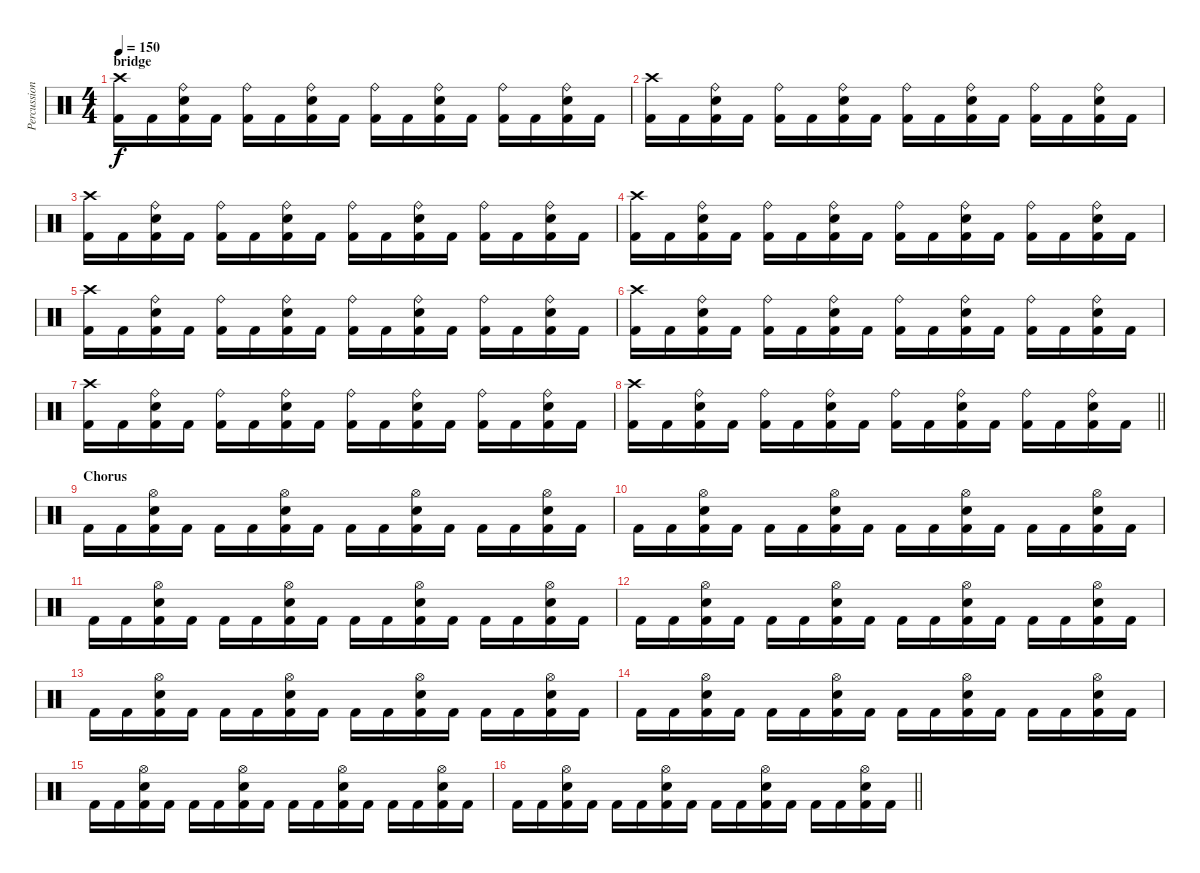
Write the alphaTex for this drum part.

\track ("Percussion" "Percussion") {instrument percussion}
\staff {score}
\articulation defaults
\ts (4 4)
\section ("" "bridge")
\tempo 150
\clef neutral
\ks c
("Crash high (hit)" "Kick (hit) 2").16{dy f} "Kick (hit) 2".16 ("Ride (bell)" "Snare (hit) 2" "Kick (hit) 2").16 "Kick (hit) 2".16 ("Ride (bell)" "Kick (hit) 2").16 "Kick (hit) 2".16 ("Ride (bell)" "Snare (hit) 2" "Kick (hit) 2").16 "Kick (hit) 2".16 ("Ride (bell)" "Kick (hit) 2").16 "Kick (hit) 2".16 ("Ride (bell)" "Snare (hit) 2" "Kick (hit) 2").16 "Kick (hit) 2".16 ("Ride (bell)" "Kick (hit) 2").16 "Kick (hit) 2".16 ("Ride (bell)" "Snare (hit) 2" "Kick (hit) 2").16 "Kick (hit) 2".16 |
("Crash high (hit)" "Kick (hit) 2").16 "Kick (hit) 2".16 ("Ride (bell)" "Snare (hit) 2" "Kick (hit) 2").16 "Kick (hit) 2".16 ("Ride (bell)" "Kick (hit) 2").16 "Kick (hit) 2".16 ("Ride (bell)" "Snare (hit) 2" "Kick (hit) 2").16 "Kick (hit) 2".16 ("Ride (bell)" "Kick (hit) 2").16 "Kick (hit) 2".16 ("Ride (bell)" "Snare (hit) 2" "Kick (hit) 2").16 "Kick (hit) 2".16 ("Ride (bell)" "Kick (hit) 2").16 "Kick (hit) 2".16 ("Ride (bell)" "Snare (hit) 2" "Kick (hit) 2").16 "Kick (hit) 2".16 |
("Crash high (hit)" "Kick (hit) 2").16 "Kick (hit) 2".16 ("Ride (bell)" "Snare (hit) 2" "Kick (hit) 2").16 "Kick (hit) 2".16 ("Ride (bell)" "Kick (hit) 2").16 "Kick (hit) 2".16 ("Ride (bell)" "Snare (hit) 2" "Kick (hit) 2").16 "Kick (hit) 2".16 ("Ride (bell)" "Kick (hit) 2").16 "Kick (hit) 2".16 ("Ride (bell)" "Snare (hit) 2" "Kick (hit) 2").16 "Kick (hit) 2".16 ("Ride (bell)" "Kick (hit) 2").16 "Kick (hit) 2".16 ("Ride (bell)" "Snare (hit) 2" "Kick (hit) 2").16 "Kick (hit) 2".16 |
("Crash high (hit)" "Kick (hit) 2").16 "Kick (hit) 2".16 ("Ride (bell)" "Snare (hit) 2" "Kick (hit) 2").16 "Kick (hit) 2".16 ("Ride (bell)" "Kick (hit) 2").16 "Kick (hit) 2".16 ("Ride (bell)" "Snare (hit) 2" "Kick (hit) 2").16 "Kick (hit) 2".16 ("Ride (bell)" "Kick (hit) 2").16 "Kick (hit) 2".16 ("Ride (bell)" "Snare (hit) 2" "Kick (hit) 2").16 "Kick (hit) 2".16 ("Ride (bell)" "Kick (hit) 2").16 "Kick (hit) 2".16 ("Ride (bell)" "Snare (hit) 2" "Kick (hit) 2").16 "Kick (hit) 2".16 |
("Crash high (hit)" "Kick (hit) 2").16 "Kick (hit) 2".16 ("Ride (bell)" "Snare (hit) 2" "Kick (hit) 2").16 "Kick (hit) 2".16 ("Ride (bell)" "Kick (hit) 2").16 "Kick (hit) 2".16 ("Ride (bell)" "Snare (hit) 2" "Kick (hit) 2").16 "Kick (hit) 2".16 ("Ride (bell)" "Kick (hit) 2").16 "Kick (hit) 2".16 ("Ride (bell)" "Snare (hit) 2" "Kick (hit) 2").16 "Kick (hit) 2".16 ("Ride (bell)" "Kick (hit) 2").16 "Kick (hit) 2".16 ("Ride (bell)" "Snare (hit) 2" "Kick (hit) 2").16 "Kick (hit) 2".16 |
("Crash high (hit)" "Kick (hit) 2").16 "Kick (hit) 2".16 ("Ride (bell)" "Snare (hit) 2" "Kick (hit) 2").16 "Kick (hit) 2".16 ("Ride (bell)" "Kick (hit) 2").16 "Kick (hit) 2".16 ("Ride (bell)" "Snare (hit) 2" "Kick (hit) 2").16 "Kick (hit) 2".16 ("Ride (bell)" "Kick (hit) 2").16 "Kick (hit) 2".16 ("Ride (bell)" "Snare (hit) 2" "Kick (hit) 2").16 "Kick (hit) 2".16 ("Ride (bell)" "Kick (hit) 2").16 "Kick (hit) 2".16 ("Ride (bell)" "Snare (hit) 2" "Kick (hit) 2").16 "Kick (hit) 2".16 |
("Crash high (hit)" "Kick (hit) 2").16 "Kick (hit) 2".16 ("Ride (bell)" "Snare (hit) 2" "Kick (hit) 2").16 "Kick (hit) 2".16 ("Ride (bell)" "Kick (hit) 2").16 "Kick (hit) 2".16 ("Ride (bell)" "Snare (hit) 2" "Kick (hit) 2").16 "Kick (hit) 2".16 ("Ride (bell)" "Kick (hit) 2").16 "Kick (hit) 2".16 ("Ride (bell)" "Snare (hit) 2" "Kick (hit) 2").16 "Kick (hit) 2".16 ("Ride (bell)" "Kick (hit) 2").16 "Kick (hit) 2".16 ("Ride (bell)" "Snare (hit) 2" "Kick (hit) 2").16 "Kick (hit) 2".16 |
\barLineRight lightlight
("Crash high (hit)" "Kick (hit) 2").16 "Kick (hit) 2".16 ("Ride (bell)" "Snare (hit) 2" "Kick (hit) 2").16 "Kick (hit) 2".16 ("Ride (bell)" "Kick (hit) 2").16 "Kick (hit) 2".16 ("Ride (bell)" "Snare (hit) 2" "Kick (hit) 2").16 "Kick (hit) 2".16 ("Ride (bell)" "Kick (hit) 2").16 "Kick (hit) 2".16 ("Ride (bell)" "Snare (hit) 2" "Kick (hit) 2").16 "Kick (hit) 2".16 ("Ride (bell)" "Kick (hit) 2").16 "Kick (hit) 2".16 ("Ride (bell)" "Snare (hit) 2" "Kick (hit) 2").16 "Kick (hit) 2".16 |
\section ("" "Chorus")
"Kick (hit) 2".16 "Kick (hit) 2".16 ("Hi-Hat (open)" "Snare (hit) 2" "Kick (hit) 2").16 "Kick (hit) 2".16 "Kick (hit) 2".16 "Kick (hit) 2".16 ("Hi-Hat (open)" "Snare (hit) 2" "Kick (hit) 2").16 "Kick (hit) 2".16 "Kick (hit) 2".16 "Kick (hit) 2".16 ("Hi-Hat (open)" "Snare (hit) 2" "Kick (hit) 2").16 "Kick (hit) 2".16 "Kick (hit) 2".16 "Kick (hit) 2".16 ("Hi-Hat (open)" "Snare (hit) 2" "Kick (hit) 2").16 "Kick (hit) 2".16 |
"Kick (hit) 2".16 "Kick (hit) 2".16 ("Hi-Hat (open)" "Snare (hit) 2" "Kick (hit) 2").16 "Kick (hit) 2".16 "Kick (hit) 2".16 "Kick (hit) 2".16 ("Hi-Hat (open)" "Snare (hit) 2" "Kick (hit) 2").16 "Kick (hit) 2".16 "Kick (hit) 2".16 "Kick (hit) 2".16 ("Hi-Hat (open)" "Snare (hit) 2" "Kick (hit) 2").16 "Kick (hit) 2".16 "Kick (hit) 2".16 "Kick (hit) 2".16 ("Hi-Hat (open)" "Snare (hit) 2" "Kick (hit) 2").16 "Kick (hit) 2".16 |
"Kick (hit) 2".16 "Kick (hit) 2".16 ("Hi-Hat (open)" "Snare (hit) 2" "Kick (hit) 2").16 "Kick (hit) 2".16 "Kick (hit) 2".16 "Kick (hit) 2".16 ("Hi-Hat (open)" "Snare (hit) 2" "Kick (hit) 2").16 "Kick (hit) 2".16 "Kick (hit) 2".16 "Kick (hit) 2".16 ("Hi-Hat (open)" "Snare (hit) 2" "Kick (hit) 2").16 "Kick (hit) 2".16 "Kick (hit) 2".16 "Kick (hit) 2".16 ("Hi-Hat (open)" "Snare (hit) 2" "Kick (hit) 2").16 "Kick (hit) 2".16 |
"Kick (hit) 2".16 "Kick (hit) 2".16 ("Hi-Hat (open)" "Snare (hit) 2" "Kick (hit) 2").16 "Kick (hit) 2".16 "Kick (hit) 2".16 "Kick (hit) 2".16 ("Hi-Hat (open)" "Snare (hit) 2" "Kick (hit) 2").16 "Kick (hit) 2".16 "Kick (hit) 2".16 "Kick (hit) 2".16 ("Hi-Hat (open)" "Snare (hit) 2" "Kick (hit) 2").16 "Kick (hit) 2".16 "Kick (hit) 2".16 "Kick (hit) 2".16 ("Hi-Hat (open)" "Snare (hit) 2" "Kick (hit) 2").16 "Kick (hit) 2".16 |
"Kick (hit) 2".16 "Kick (hit) 2".16 ("Hi-Hat (open)" "Snare (hit) 2" "Kick (hit) 2").16 "Kick (hit) 2".16 "Kick (hit) 2".16 "Kick (hit) 2".16 ("Hi-Hat (open)" "Snare (hit) 2" "Kick (hit) 2").16 "Kick (hit) 2".16 "Kick (hit) 2".16 "Kick (hit) 2".16 ("Hi-Hat (open)" "Snare (hit) 2" "Kick (hit) 2").16 "Kick (hit) 2".16 "Kick (hit) 2".16 "Kick (hit) 2".16 ("Hi-Hat (open)" "Snare (hit) 2" "Kick (hit) 2").16 "Kick (hit) 2".16 |
"Kick (hit) 2".16 "Kick (hit) 2".16 ("Hi-Hat (open)" "Snare (hit) 2" "Kick (hit) 2").16 "Kick (hit) 2".16 "Kick (hit) 2".16 "Kick (hit) 2".16 ("Hi-Hat (open)" "Snare (hit) 2" "Kick (hit) 2").16 "Kick (hit) 2".16 "Kick (hit) 2".16 "Kick (hit) 2".16 ("Hi-Hat (open)" "Snare (hit) 2" "Kick (hit) 2").16 "Kick (hit) 2".16 "Kick (hit) 2".16 "Kick (hit) 2".16 ("Hi-Hat (open)" "Snare (hit) 2" "Kick (hit) 2").16 "Kick (hit) 2".16 |
"Kick (hit) 2".16 "Kick (hit) 2".16 ("Hi-Hat (open)" "Snare (hit) 2" "Kick (hit) 2").16 "Kick (hit) 2".16 "Kick (hit) 2".16 "Kick (hit) 2".16 ("Hi-Hat (open)" "Snare (hit) 2" "Kick (hit) 2").16 "Kick (hit) 2".16 "Kick (hit) 2".16 "Kick (hit) 2".16 ("Hi-Hat (open)" "Snare (hit) 2" "Kick (hit) 2").16 "Kick (hit) 2".16 "Kick (hit) 2".16 "Kick (hit) 2".16 ("Hi-Hat (open)" "Snare (hit) 2" "Kick (hit) 2").16 "Kick (hit) 2".16 |
\barLineRight lightlight "Kick (hit) 2".16 "Kick (hit) 2".16
("Hi-Hat (open)" "Snare (hit) 2" "Kick (hit) 2").16 "Kick (hit) 2".16 "Kick (hit) 2".16 "Kick (hit) 2".16 ("Hi-Hat (open)" "Snare (hit) 2" "Kick (hit) 2").16 "Kick (hit) 2".16 "Kick (hit) 2".16 "Kick (hit) 2".16 ("Hi-Hat (open)" "Snare (hit) 2" "Kick (hit) 2").16 "Kick (hit) 2".16 "Kick (hit) 2".16 "Kick (hit) 2".16 ("Hi-Hat (open)" "Snare (hit) 2" "Kick (hit) 2").16 "Kick (hit) 2".16
